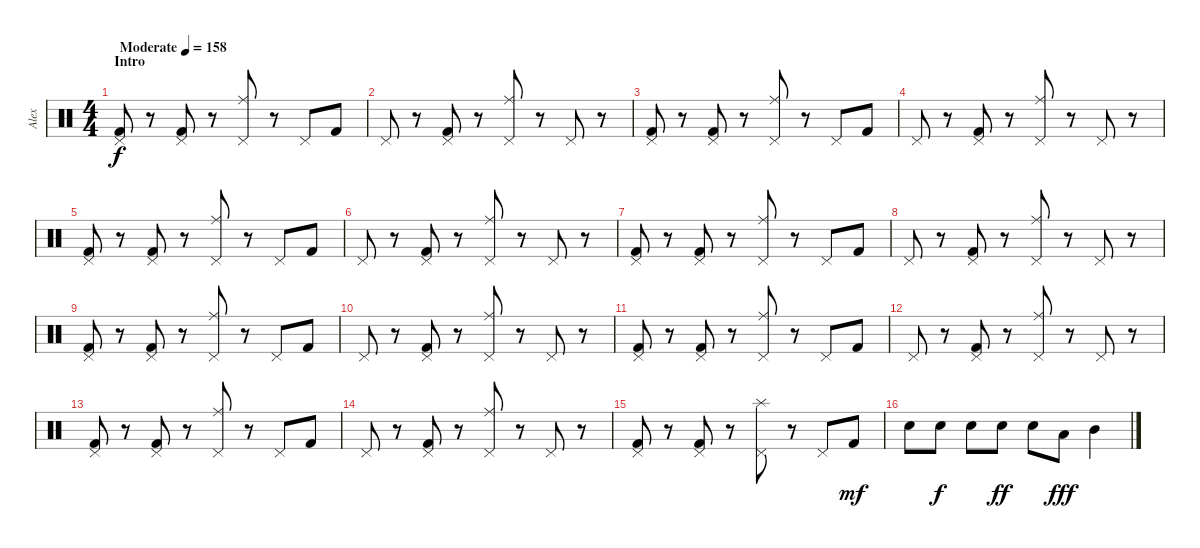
\track ("Alex" "Alex") {instrument percussion}
\staff {score}
\articulation defaults
\ts (4 4)
\section ("" "Intro")
\tempo (158 "Moderate")
\clef neutral
\ks c
("Pedal Hi-Hat (hit)" "Kick (hit) 2").8{dy f} r.8 ("Pedal Hi-Hat (hit)" "Kick (hit) 2").8 r.8 ("Pedal Hi-Hat (hit)" "Ride (middle)").8 r.8 "Pedal Hi-Hat (hit)".8 "Kick (hit) 2".8 |
"Pedal Hi-Hat (hit)".8 r.8 ("Pedal Hi-Hat (hit)" "Kick (hit) 2").8 r.8 ("Pedal Hi-Hat (hit)" "Ride (middle)").8 r.8 "Pedal Hi-Hat (hit)".8 r.8 |
("Pedal Hi-Hat (hit)" "Kick (hit) 2").8 r.8 ("Pedal Hi-Hat (hit)" "Kick (hit) 2").8 r.8 ("Pedal Hi-Hat (hit)" "Ride (middle)").8 r.8 "Pedal Hi-Hat (hit)".8 "Kick (hit) 2".8 |
"Pedal Hi-Hat (hit)".8 r.8 ("Pedal Hi-Hat (hit)" "Kick (hit) 2").8 r.8 ("Pedal Hi-Hat (hit)" "Ride (middle)").8 r.8 "Pedal Hi-Hat (hit)".8 r.8 |
("Pedal Hi-Hat (hit)" "Kick (hit) 2").8 r.8 ("Pedal Hi-Hat (hit)" "Kick (hit) 2").8 r.8 ("Pedal Hi-Hat (hit)" "Ride (middle)").8 r.8 "Pedal Hi-Hat (hit)".8 "Kick (hit) 2".8 |
"Pedal Hi-Hat (hit)".8 r.8 ("Pedal Hi-Hat (hit)" "Kick (hit) 2").8 r.8 ("Pedal Hi-Hat (hit)" "Ride (middle)").8 r.8 "Pedal Hi-Hat (hit)".8 r.8 |
("Pedal Hi-Hat (hit)" "Kick (hit) 2").8 r.8 ("Pedal Hi-Hat (hit)" "Kick (hit) 2").8 r.8 ("Pedal Hi-Hat (hit)" "Ride (middle)").8 r.8 "Pedal Hi-Hat (hit)".8 "Kick (hit) 2".8 |
"Pedal Hi-Hat (hit)".8 r.8 ("Pedal Hi-Hat (hit)" "Kick (hit) 2").8 r.8 ("Pedal Hi-Hat (hit)" "Ride (middle)").8 r.8 "Pedal Hi-Hat (hit)".8 r.8 |
("Pedal Hi-Hat (hit)" "Kick (hit) 2").8 r.8 ("Pedal Hi-Hat (hit)" "Kick (hit) 2").8 r.8 ("Pedal Hi-Hat (hit)" "Ride (middle)").8 r.8 "Pedal Hi-Hat (hit)".8 "Kick (hit) 2".8 |
"Pedal Hi-Hat (hit)".8 r.8 ("Pedal Hi-Hat (hit)" "Kick (hit) 2").8 r.8 ("Pedal Hi-Hat (hit)" "Ride (middle)").8 r.8 "Pedal Hi-Hat (hit)".8 r.8 |
("Pedal Hi-Hat (hit)" "Kick (hit) 2").8 r.8 ("Pedal Hi-Hat (hit)" "Kick (hit) 2").8 r.8 ("Pedal Hi-Hat (hit)" "Ride (middle)").8 r.8 "Pedal Hi-Hat (hit)".8 "Kick (hit) 2".8 |
"Pedal Hi-Hat (hit)".8 r.8 ("Pedal Hi-Hat (hit)" "Kick (hit) 2").8 r.8 ("Pedal Hi-Hat (hit)" "Ride (middle)").8 r.8 "Pedal Hi-Hat (hit)".8 r.8 |
("Pedal Hi-Hat (hit)" "Kick (hit) 2").8 r.8 ("Pedal Hi-Hat (hit)" "Kick (hit) 2").8 r.8 ("Pedal Hi-Hat (hit)" "Ride (middle)").8 r.8 "Pedal Hi-Hat (hit)".8 "Kick (hit) 2".8 |
"Pedal Hi-Hat (hit)".8 r.8 ("Pedal Hi-Hat (hit)" "Kick (hit) 2").8 r.8 ("Pedal Hi-Hat (hit)" "Ride (middle)").8 r.8 "Pedal Hi-Hat (hit)".8 r.8 |
("Pedal Hi-Hat (hit)" "Kick (hit) 2").8 r.8 ("Pedal Hi-Hat (hit)" "Kick (hit) 2").8 r.8 ("Pedal Hi-Hat (hit)" "Splash (hit)").8 r.8 "Pedal Hi-Hat (hit)".8 "Kick (hit) 2".8{dy mf} |
"Snare (hit) 2".8 "Snare (hit) 2".8{dy f} "Snare (hit) 2".8 "Snare (hit) 2".8{dy ff} "Snare (hit) 2".8 "Low Tom (hit)".8{dy fff} "Mid Tom (hit)".4
